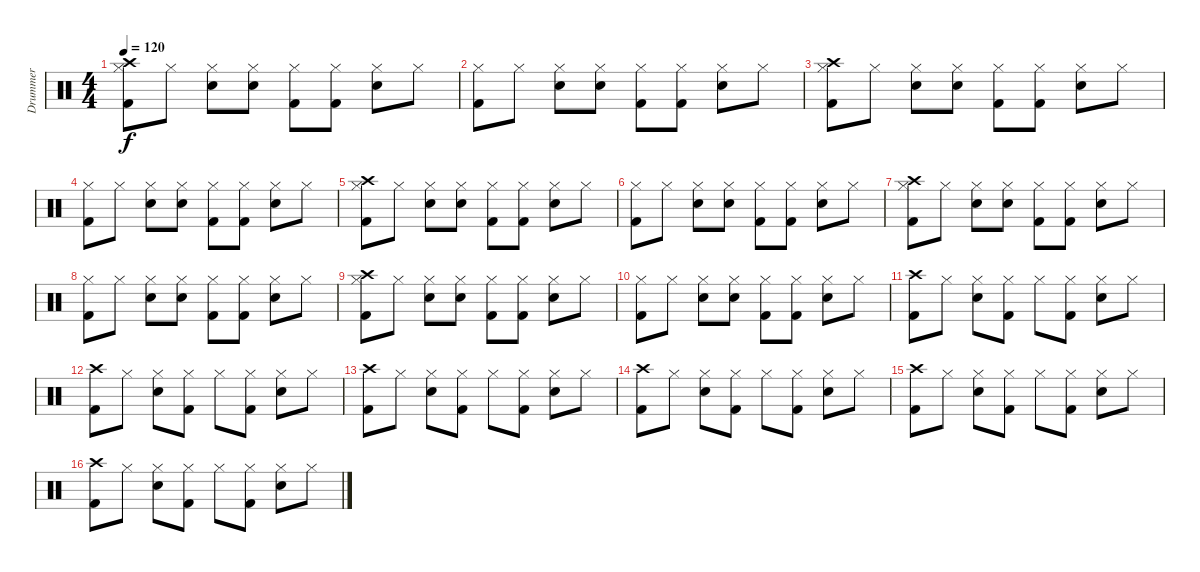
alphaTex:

\track ("Drummer" "Drummer") {instrument percussion}
\staff {score}
\articulation defaults
\ts (4 4)
\tempo 120
\clef neutral
\ks c
("Kick (hit) 2" "Crash high (hit)" "Hi-Hat (closed)").8{dy f} "Hi-Hat (closed)".8 ("Electric Snare (hit)" "Hi-Hat (closed)").8 ("Electric Snare (hit)" "Hi-Hat (closed)").8 ("Kick (hit) 2" "Hi-Hat (closed)").8 ("Kick (hit) 2" "Hi-Hat (closed)").8 ("Electric Snare (hit)" "Hi-Hat (closed)").8 "Hi-Hat (closed)".8 |
("Kick (hit) 2" "Hi-Hat (closed)").8 "Hi-Hat (closed)".8 ("Electric Snare (hit)" "Hi-Hat (closed)").8 ("Electric Snare (hit)" "Hi-Hat (closed)").8 ("Kick (hit) 2" "Hi-Hat (closed)").8 ("Kick (hit) 2" "Hi-Hat (closed)").8 ("Electric Snare (hit)" "Hi-Hat (closed)").8 "Hi-Hat (closed)".8 |
("Kick (hit) 2" "Crash high (hit)" "Hi-Hat (closed)").8 "Hi-Hat (closed)".8 ("Electric Snare (hit)" "Hi-Hat (closed)").8 ("Electric Snare (hit)" "Hi-Hat (closed)").8 ("Kick (hit) 2" "Hi-Hat (closed)").8 ("Kick (hit) 2" "Hi-Hat (closed)").8 ("Electric Snare (hit)" "Hi-Hat (closed)").8 "Hi-Hat (closed)".8 |
("Kick (hit) 2" "Hi-Hat (closed)").8 "Hi-Hat (closed)".8 ("Electric Snare (hit)" "Hi-Hat (closed)").8 ("Electric Snare (hit)" "Hi-Hat (closed)").8 ("Kick (hit) 2" "Hi-Hat (closed)").8 ("Kick (hit) 2" "Hi-Hat (closed)").8 ("Electric Snare (hit)" "Hi-Hat (closed)").8 "Hi-Hat (closed)".8 |
("Kick (hit) 2" "Crash high (hit)" "Hi-Hat (closed)").8 "Hi-Hat (closed)".8 ("Electric Snare (hit)" "Hi-Hat (closed)").8 ("Electric Snare (hit)" "Hi-Hat (closed)").8 ("Kick (hit) 2" "Hi-Hat (closed)").8 ("Kick (hit) 2" "Hi-Hat (closed)").8 ("Electric Snare (hit)" "Hi-Hat (closed)").8 "Hi-Hat (closed)".8 |
("Kick (hit) 2" "Hi-Hat (closed)").8 "Hi-Hat (closed)".8 ("Electric Snare (hit)" "Hi-Hat (closed)").8 ("Electric Snare (hit)" "Hi-Hat (closed)").8 ("Kick (hit) 2" "Hi-Hat (closed)").8 ("Kick (hit) 2" "Hi-Hat (closed)").8 ("Electric Snare (hit)" "Hi-Hat (closed)").8 "Hi-Hat (closed)".8 |
("Kick (hit) 2" "Crash high (hit)" "Hi-Hat (closed)").8 "Hi-Hat (closed)".8 ("Electric Snare (hit)" "Hi-Hat (closed)").8 ("Electric Snare (hit)" "Hi-Hat (closed)").8 ("Kick (hit) 2" "Hi-Hat (closed)").8 ("Kick (hit) 2" "Hi-Hat (closed)").8 ("Electric Snare (hit)" "Hi-Hat (closed)").8 "Hi-Hat (closed)".8 |
("Kick (hit) 2" "Hi-Hat (closed)").8 "Hi-Hat (closed)".8 ("Electric Snare (hit)" "Hi-Hat (closed)").8 ("Electric Snare (hit)" "Hi-Hat (closed)").8 ("Kick (hit) 2" "Hi-Hat (closed)").8 ("Kick (hit) 2" "Hi-Hat (closed)").8 ("Electric Snare (hit)" "Hi-Hat (closed)").8 "Hi-Hat (closed)".8 |
("Kick (hit) 2" "Crash high (hit)" "Hi-Hat (closed)").8 "Hi-Hat (closed)".8 ("Electric Snare (hit)" "Hi-Hat (closed)").8 ("Electric Snare (hit)" "Hi-Hat (closed)").8 ("Kick (hit) 2" "Hi-Hat (closed)").8 ("Kick (hit) 2" "Hi-Hat (closed)").8 ("Electric Snare (hit)" "Hi-Hat (closed)").8 "Hi-Hat (closed)".8 |
("Kick (hit) 2" "Hi-Hat (closed)").8 "Hi-Hat (closed)".8 ("Electric Snare (hit)" "Hi-Hat (closed)").8 ("Electric Snare (hit)" "Hi-Hat (closed)").8 ("Kick (hit) 2" "Hi-Hat (closed)").8 ("Kick (hit) 2" "Hi-Hat (closed)").8 ("Electric Snare (hit)" "Hi-Hat (closed)").8 "Hi-Hat (closed)".8 |
("Kick (hit) 2" "Crash high (hit)").8 "Hi-Hat (closed)".8 ("Electric Snare (hit)" "Hi-Hat (closed)").8 ("Kick (hit) 2" "Hi-Hat (closed)").8 "Hi-Hat (closed)".8 ("Kick (hit) 2" "Hi-Hat (closed)").8 ("Electric Snare (hit)" "Hi-Hat (closed)").8 "Hi-Hat (closed)".8 |
("Kick (hit) 2" "Crash high (hit)").8 "Hi-Hat (closed)".8 ("Electric Snare (hit)" "Hi-Hat (closed)").8 ("Kick (hit) 2" "Hi-Hat (closed)").8 "Hi-Hat (closed)".8 ("Kick (hit) 2" "Hi-Hat (closed)").8 ("Electric Snare (hit)" "Hi-Hat (closed)").8 "Hi-Hat (closed)".8 |
("Kick (hit) 2" "Crash high (hit)").8 "Hi-Hat (closed)".8 ("Electric Snare (hit)" "Hi-Hat (closed)").8 ("Kick (hit) 2" "Hi-Hat (closed)").8 "Hi-Hat (closed)".8 ("Kick (hit) 2" "Hi-Hat (closed)").8 ("Electric Snare (hit)" "Hi-Hat (closed)").8 "Hi-Hat (closed)".8 |
("Kick (hit) 2" "Crash high (hit)").8 "Hi-Hat (closed)".8 ("Electric Snare (hit)" "Hi-Hat (closed)").8 ("Kick (hit) 2" "Hi-Hat (closed)").8 "Hi-Hat (closed)".8 ("Kick (hit) 2" "Hi-Hat (closed)").8 ("Electric Snare (hit)" "Hi-Hat (closed)").8 "Hi-Hat (closed)".8 |
("Kick (hit) 2" "Crash high (hit)").8 "Hi-Hat (closed)".8 ("Electric Snare (hit)" "Hi-Hat (closed)").8 ("Kick (hit) 2" "Hi-Hat (closed)").8 "Hi-Hat (closed)".8 ("Kick (hit) 2" "Hi-Hat (closed)").8 ("Electric Snare (hit)" "Hi-Hat (closed)").8 "Hi-Hat (closed)".8 |
("Kick (hit) 2" "Crash high (hit)").8 "Hi-Hat (closed)".8 ("Electric Snare (hit)" "Hi-Hat (closed)").8 ("Kick (hit) 2" "Hi-Hat (closed)").8 "Hi-Hat (closed)".8 ("Kick (hit) 2" "Hi-Hat (closed)").8 ("Electric Snare (hit)" "Hi-Hat (closed)").8 "Hi-Hat (closed)".8
